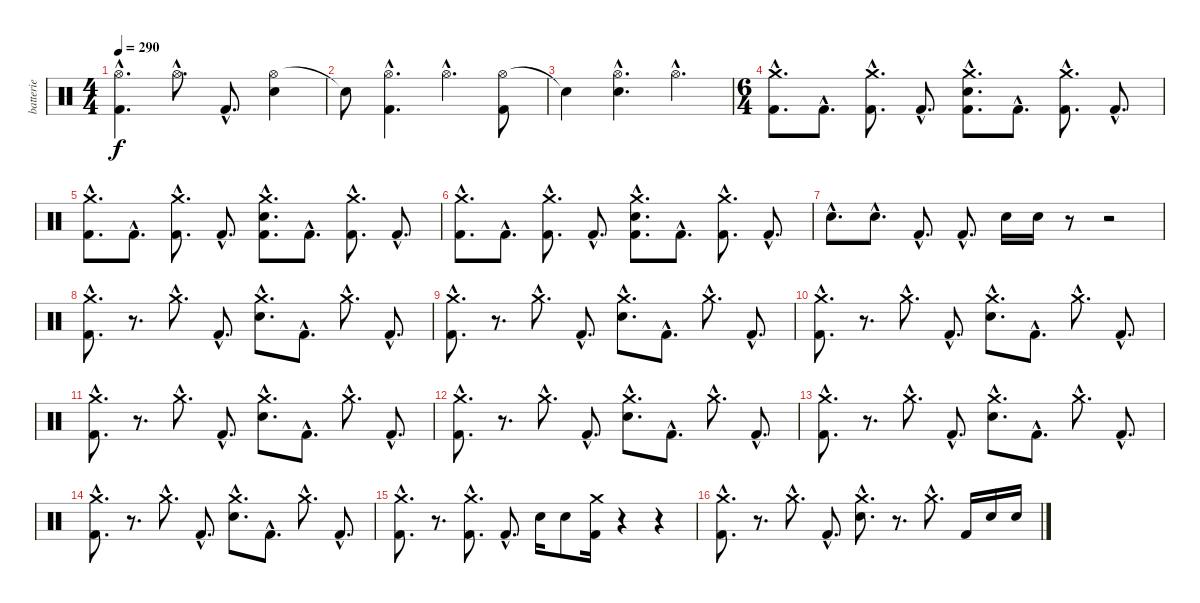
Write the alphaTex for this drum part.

\track ("batterie" "batterie") {instrument percussion}
\staff {score}
\articulation defaults
\ts (4 4)
\tempo 290
\clef neutral
\ks c
("Hi-Hat (open)"{hac} "Kick (hit) 2"{hac}).4{d dy f} "Hi-Hat (open)"{hac}.8{d} "Kick (hit) 2"{hac}.8{d} ("Hi-Hat (open)" "Electric Snare (hit)").4 |
"Snare (hit)"{t}.8 ("Hi-Hat (open)"{hac} "Kick (hit) 2"{hac}).4{d} "Hi-Hat (open)"{hac}.4{d} ("Hi-Hat (open)" "Kick (hit) 2").8 |
"Snare (hit)"{t}.4 ("Hi-Hat (open)"{hac} "Electric Snare (hit)"{hac}).4{d} "Hi-Hat (open)"{hac}.4{d} |
\ts (6 4)
("Crash medium (hit)"{hac} "Kick (hit) 2"{hac}).8{d} "Kick (hit) 2"{hac}.8{d} ("Crash medium (hit)"{hac} "Kick (hit) 2"{hac}).8{d} "Kick (hit) 2"{hac}.8{d} ("Crash medium (hit)"{hac} "Electric Snare (hit)"{hac} "Kick (hit) 2"{hac}).8{d} "Kick (hit) 2"{hac}.8{d} ("Crash medium (hit)"{hac} "Kick (hit) 2"{hac}).8{d} "Kick (hit) 2"{hac}.8{d} |
("Crash medium (hit)"{hac} "Kick (hit) 2"{hac}).8{d} "Kick (hit) 2"{hac}.8{d} ("Crash medium (hit)"{hac} "Kick (hit) 2"{hac}).8{d} "Kick (hit) 2"{hac}.8{d} ("Crash medium (hit)"{hac} "Electric Snare (hit)"{hac} "Kick (hit) 2"{hac}).8{d} "Kick (hit) 2"{hac}.8{d} ("Crash medium (hit)"{hac} "Kick (hit) 2"{hac}).8{d} "Kick (hit) 2"{hac}.8{d} |
("Crash medium (hit)"{hac} "Kick (hit) 2"{hac}).8{d} "Kick (hit) 2"{hac}.8{d} ("Crash medium (hit)"{hac} "Kick (hit) 2"{hac}).8{d} "Kick (hit) 2"{hac}.8{d} ("Crash medium (hit)"{hac} "Electric Snare (hit)"{hac} "Kick (hit) 2"{hac}).8{d} "Kick (hit) 2"{hac}.8{d} ("Crash medium (hit)"{hac} "Kick (hit) 2"{hac}).8{d} "Kick (hit) 2"{hac}.8{d} |
"Electric Snare (hit)"{hac}.8{d} "Electric Snare (hit)"{hac}.8{d} "Kick (hit) 2"{hac}.8{d} "Kick (hit) 2"{hac}.8{d} "Electric Snare (hit)".16 "Electric Snare (hit)".16 r.8 r.2 |
("Crash medium (hit)"{hac} "Kick (hit) 2"{hac}).8{d} r.8{d} "Crash medium (hit)"{hac}.8{d} "Kick (hit) 2"{hac}.8{d} ("Crash medium (hit)"{hac} "Electric Snare (hit)"{hac}).8{d} "Kick (hit) 2"{hac}.8{d} "Crash medium (hit)"{hac}.8{d} "Kick (hit) 2"{hac}.8{d} |
("Crash medium (hit)"{hac} "Kick (hit) 2"{hac}).8{d} r.8{d} "Crash medium (hit)"{hac}.8{d} "Kick (hit) 2"{hac}.8{d} ("Crash medium (hit)"{hac} "Electric Snare (hit)"{hac}).8{d} "Kick (hit) 2"{hac}.8{d} "Crash medium (hit)"{hac}.8{d} "Kick (hit) 2"{hac}.8{d} |
("Crash medium (hit)"{hac} "Kick (hit) 2"{hac}).8{d} r.8{d} "Crash medium (hit)"{hac}.8{d} "Kick (hit) 2"{hac}.8{d} ("Crash medium (hit)"{hac} "Electric Snare (hit)"{hac}).8{d} "Kick (hit) 2"{hac}.8{d} "Crash medium (hit)"{hac}.8{d} "Kick (hit) 2"{hac}.8{d} |
("Crash medium (hit)"{hac} "Kick (hit) 2"{hac}).8{d} r.8{d} "Crash medium (hit)"{hac}.8{d} "Kick (hit) 2"{hac}.8{d} ("Crash medium (hit)"{hac} "Electric Snare (hit)"{hac}).8{d} "Kick (hit) 2"{hac}.8{d} "Crash medium (hit)"{hac}.8{d} "Kick (hit) 2"{hac}.8{d} |
("Crash medium (hit)"{hac} "Kick (hit) 2"{hac}).8{d} r.8{d} "Crash medium (hit)"{hac}.8{d} "Kick (hit) 2"{hac}.8{d} ("Crash medium (hit)"{hac} "Electric Snare (hit)"{hac}).8{d} "Kick (hit) 2"{hac}.8{d} "Crash medium (hit)"{hac}.8{d} "Kick (hit) 2"{hac}.8{d} |
("Crash medium (hit)"{hac} "Kick (hit) 2"{hac}).8{d} r.8{d} "Crash medium (hit)"{hac}.8{d} "Kick (hit) 2"{hac}.8{d} ("Crash medium (hit)"{hac} "Electric Snare (hit)"{hac}).8{d} "Kick (hit) 2"{hac}.8{d} "Crash medium (hit)"{hac}.8{d} "Kick (hit) 2"{hac}.8{d} |
("Crash medium (hit)"{hac} "Kick (hit) 2"{hac}).8{d} r.8{d} "Crash medium (hit)"{hac}.8{d} "Kick (hit) 2"{hac}.8{d} ("Crash medium (hit)"{hac} "Electric Snare (hit)"{hac}).8{d} "Kick (hit) 2"{hac}.8{d} "Crash medium (hit)"{hac}.8{d} "Kick (hit) 2"{hac}.8{d} |
("Crash medium (hit)"{hac} "Kick (hit) 2"{hac}).8{d} r.8{d} ("Crash medium (hit)"{hac} "Kick (hit) 2"{hac}).8{d} "Kick (hit) 2"{hac}.8{d} "Electric Snare (hit)".16 "Electric Snare (hit)".8 ("Crash medium (hit)" "Kick (hit) 2").16 r.4 r.4 |
("Crash medium (hit)"{hac} "Kick (hit) 2"{hac}).8{d} r.8{d} "Crash medium (hit)"{hac}.8{d} "Kick (hit) 2"{hac}.8{d} ("Crash medium (hit)"{hac} "Electric Snare (hit)"{hac}).8{d} r.8{d} "Crash medium (hit)"{hac}.8{d} "Kick (hit) 2".16 "Electric Snare (hit)".16 "Electric Snare (hit)".16
